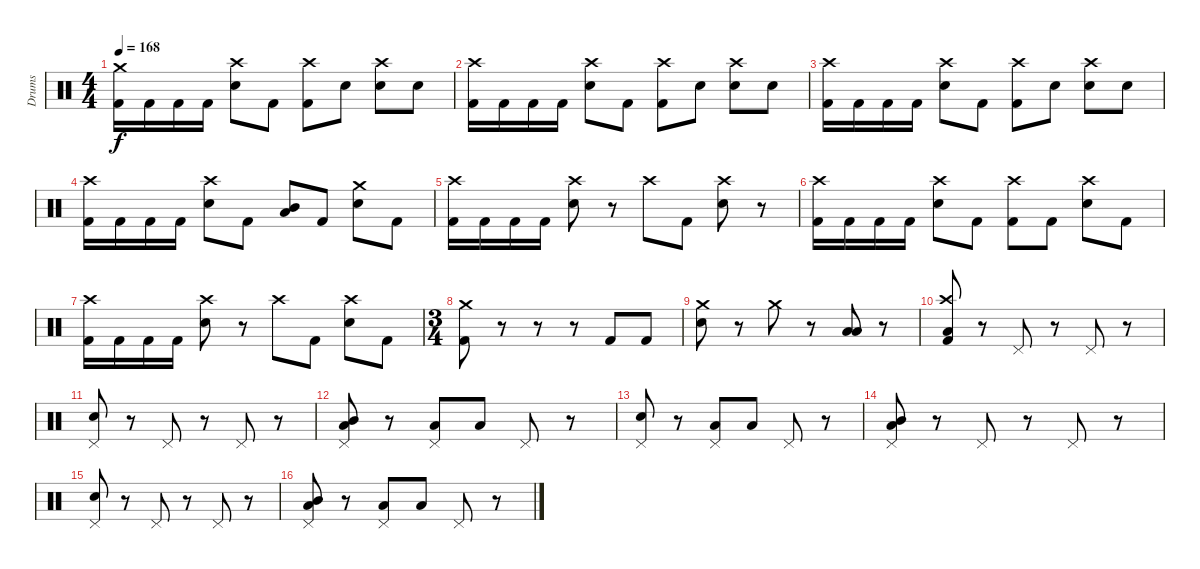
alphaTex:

\track ("Drums" "Drums") {instrument percussion}
\staff {score}
\articulation defaults
\ts (4 4)
\tempo 168
\clef neutral
\ks c
("Crash medium (hit)" "Kick (hit) 2").16{dy f} "Kick (hit) 2".16 "Kick (hit) 2".16 "Kick (hit) 2".16 ("Crash high (hit)" "Electric Snare (hit)").8 "Kick (hit) 2".8 ("Crash high (hit)" "Kick (hit) 2").8 "Electric Snare (hit)".8 ("Crash high (hit)" "Electric Snare (hit)").8 "Electric Snare (hit)".8 |
("Crash high (hit)" "Kick (hit) 2").16 "Kick (hit) 2".16 "Kick (hit) 2".16 "Kick (hit) 2".16 ("Crash high (hit)" "Electric Snare (hit)").8 "Kick (hit) 2".8 ("Crash high (hit)" "Kick (hit) 2").8 "Electric Snare (hit)".8 ("Crash high (hit)" "Electric Snare (hit)").8 "Electric Snare (hit)".8 |
("Crash high (hit)" "Kick (hit) 2").16 "Kick (hit) 2".16 "Kick (hit) 2".16 "Kick (hit) 2".16 ("Crash high (hit)" "Electric Snare (hit)").8 "Kick (hit) 2".8 ("Crash high (hit)" "Kick (hit) 2").8 "Electric Snare (hit)".8 ("Crash high (hit)" "Electric Snare (hit)").8 "Electric Snare (hit)".8 |
("Crash high (hit)" "Kick (hit) 2").16 "Kick (hit) 2".16 "Kick (hit) 2".16 "Kick (hit) 2".16 ("Crash high (hit)" "Electric Snare (hit)").8 "Kick (hit) 2".8 ("Mid Tom (hit)" "Low Tom (hit)").8 "Kick (hit) 2".8 ("Crash medium (hit)" "Electric Snare (hit)").8 "Kick (hit) 2".8 |
("Crash high (hit)" "Kick (hit) 2").16 "Kick (hit) 2".16 "Kick (hit) 2".16 "Kick (hit) 2".16 ("Crash high (hit)" "Electric Snare (hit)").8 r.8 "Crash high (hit)".8 "Kick (hit) 2".8 ("Crash high (hit)" "Electric Snare (hit)").8 r.8 |
("Crash high (hit)" "Kick (hit) 2").16 "Kick (hit) 2".16 "Kick (hit) 2".16 "Kick (hit) 2".16 ("Crash high (hit)" "Electric Snare (hit)").8 "Kick (hit) 2".8 ("Crash high (hit)" "Kick (hit) 2").8 "Kick (hit) 2".8 ("Crash high (hit)" "Electric Snare (hit)").8 "Kick (hit) 2".8 |
("Crash high (hit)" "Kick (hit) 2").16 "Kick (hit) 2".16 "Kick (hit) 2".16 "Kick (hit) 2".16 ("Crash high (hit)" "Electric Snare (hit)").8 r.8 "Crash high (hit)".8 "Kick (hit) 2".8 ("Crash high (hit)" "Electric Snare (hit)").8 "Kick (hit) 2".8 |
\ts (3 4)
("Crash medium (hit)" "Kick (hit) 2").8 r.8 r.8 r.8 "Kick (hit) 2".8 "Kick (hit) 2".8 |
("Crash medium (hit)" "Electric Snare (hit)").8 r.8 "Crash medium (hit)".8 r.8 ("Low Tom (hit)" "Low Floor Tom (hit)").8 r.8 |
("Crash high (hit)" "Low Floor Tom (hit)" "Kick (hit) 2").8 r.8 "Pedal Hi-Hat (hit)".8 r.8 "Pedal Hi-Hat (hit)".8 r.8 |
("Pedal Hi-Hat (hit)" "Electric Snare (hit)").8 r.8 "Pedal Hi-Hat (hit)".8 r.8 "Pedal Hi-Hat (hit)".8 r.8 |
("Pedal Hi-Hat (hit)" "Mid Tom (hit)" "Low Tom (hit)").8{bu 240} r.8 ("Pedal Hi-Hat (hit)" "Low Tom (hit)").8 "Low Floor Tom (hit)".8 "Pedal Hi-Hat (hit)".8 r.8 |
("Pedal Hi-Hat (hit)" "Electric Snare (hit)").8 r.8 ("Pedal Hi-Hat (hit)" "Low Tom (hit)").8 "Low Floor Tom (hit)".8 "Pedal Hi-Hat (hit)".8 r.8 |
("Pedal Hi-Hat (hit)" "Mid Tom (hit)" "Low Tom (hit)").8{bu 240} r.8 "Pedal Hi-Hat (hit)".8 r.8 "Pedal Hi-Hat (hit)".8 r.8 |
("Pedal Hi-Hat (hit)" "Electric Snare (hit)").8 r.8 "Pedal Hi-Hat (hit)".8 r.8 "Pedal Hi-Hat (hit)".8 r.8 |
("Pedal Hi-Hat (hit)" "Mid Tom (hit)" "Low Tom (hit)").8{bu 240} r.8 ("Pedal Hi-Hat (hit)" "Low Tom (hit)").8 "Low Floor Tom (hit)".8 "Pedal Hi-Hat (hit)".8 r.8
